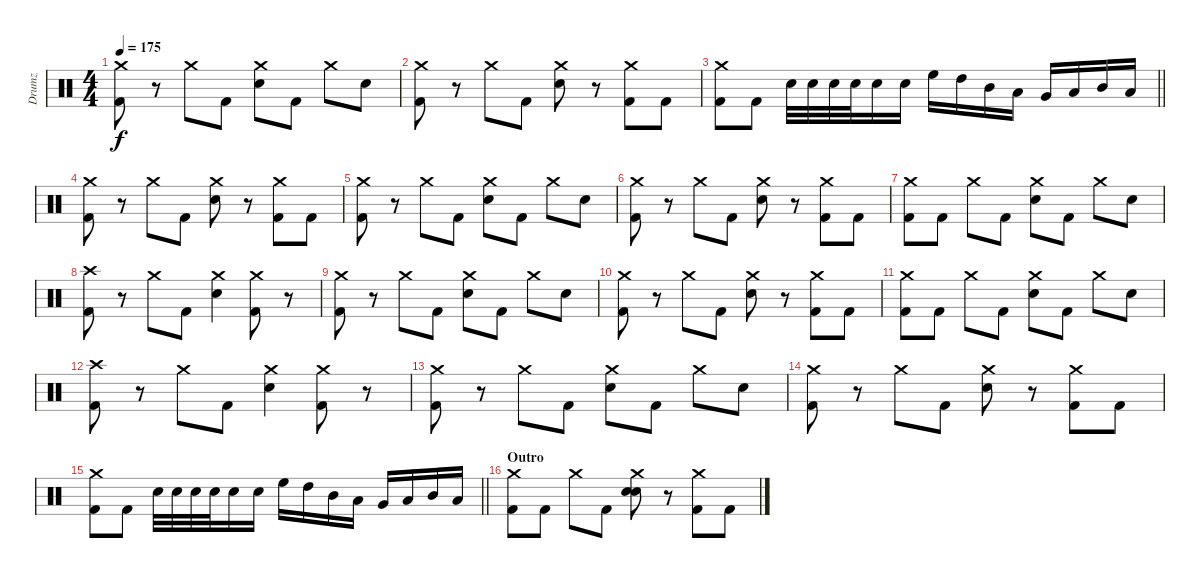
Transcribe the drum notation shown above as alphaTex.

\track ("Drumz" "Drumz") {instrument percussion}
\staff {score}
\articulation defaults
\ts (4 4)
\tempo 175
\clef neutral
\ks c
("Crash medium (hit)" "Kick (hit) 2").8{dy f} r.8 "Crash medium (hit)".8 "Kick (hit) 2".8 ("Crash medium (hit)" "Snare (hit) 2").8 "Kick (hit) 2".8 "Crash medium (hit)".8 "Snare (hit) 2".8 |
("Crash medium (hit)" "Kick (hit) 2").8 r.8 "Crash medium (hit)".8 "Kick (hit) 2".8 ("Crash medium (hit)" "Snare (hit) 2").8 r.8 ("Crash medium (hit)" "Kick (hit) 2").8 "Kick (hit) 2".8 |
\barLineRight lightlight
("Crash medium (hit)" "Kick (hit) 2").8 "Kick (hit) 2".8 "Electric Snare (hit)".32 "Electric Snare (hit)".32 "Electric Snare (hit)".32 "Electric Snare (hit)".32 "Electric Snare (hit)".16 "Electric Snare (hit)".16 "High Floor Tom (hit)".16 "High Tom (hit)".16 "Mid Tom (hit)".16 "Low Tom (hit)".16 "Very Low Tom (hit)".16 "Low Floor Tom (hit)".16 "Mid Tom (hit)".16 "Low Tom (hit)".16 |
("Crash medium (hit)" "Kick (hit) 2").8 r.8 "Crash medium (hit)".8 "Kick (hit) 2".8 ("Crash medium (hit)" "Snare (hit) 2").8 r.8 ("Crash medium (hit)" "Kick (hit) 2").8 "Kick (hit) 2".8 |
("Crash medium (hit)" "Kick (hit) 2").8 r.8 "Crash medium (hit)".8 "Kick (hit) 2".8 ("Crash medium (hit)" "Snare (hit) 2").8 "Kick (hit) 2".8 "Crash medium (hit)".8 "Snare (hit) 2".8 |
("Crash medium (hit)" "Kick (hit) 2").8 r.8 "Crash medium (hit)".8 "Kick (hit) 2".8 ("Crash medium (hit)" "Snare (hit) 2").8 r.8 ("Crash medium (hit)" "Kick (hit) 2").8 "Kick (hit) 2".8 |
("Crash medium (hit)" "Kick (hit) 2").8 "Kick (hit) 2".8 "Crash medium (hit)".8 "Kick (hit) 2".8 ("Crash medium (hit)" "Snare (hit) 2").8 "Kick (hit) 2".8 "Crash medium (hit)".8 "Snare (hit) 2".8 |
("Kick (hit) 2" "Crash high (hit)").8 r.8 "Crash medium (hit)".8 "Kick (hit) 2".8 ("Crash medium (hit)" "Snare (hit) 2").4 ("Crash medium (hit)" "Kick (hit) 2").8 r.8 |
("Crash medium (hit)" "Kick (hit) 2").8 r.8 "Crash medium (hit)".8 "Kick (hit) 2".8 ("Crash medium (hit)" "Snare (hit) 2").8 "Kick (hit) 2".8 "Crash medium (hit)".8 "Snare (hit) 2".8 |
("Crash medium (hit)" "Kick (hit) 2").8 r.8 "Crash medium (hit)".8 "Kick (hit) 2".8 ("Crash medium (hit)" "Snare (hit) 2").8 r.8 ("Crash medium (hit)" "Kick (hit) 2").8 "Kick (hit) 2".8 |
("Crash medium (hit)" "Kick (hit) 2").8 "Kick (hit) 2".8 "Crash medium (hit)".8 "Kick (hit) 2".8 ("Crash medium (hit)" "Snare (hit) 2").8 "Kick (hit) 2".8 "Crash medium (hit)".8 "Snare (hit) 2".8 |
("Kick (hit) 2" "Crash high (hit)").8 r.8 "Crash medium (hit)".8 "Kick (hit) 2".8 ("Crash medium (hit)" "Snare (hit) 2").4 ("Crash medium (hit)" "Kick (hit) 2").8 r.8 |
("Crash medium (hit)" "Kick (hit) 2").8 r.8 "Crash medium (hit)".8 "Kick (hit) 2".8 ("Crash medium (hit)" "Snare (hit) 2").8 "Kick (hit) 2".8 "Crash medium (hit)".8 "Snare (hit) 2".8 |
("Crash medium (hit)" "Kick (hit) 2").8 r.8 "Crash medium (hit)".8 "Kick (hit) 2".8 ("Crash medium (hit)" "Snare (hit) 2").8 r.8 ("Crash medium (hit)" "Kick (hit) 2").8 "Kick (hit) 2".8 |
\barLineRight lightlight
("Crash medium (hit)" "Kick (hit) 2").8 "Kick (hit) 2".8 "Electric Snare (hit)".32 "Electric Snare (hit)".32 "Electric Snare (hit)".32 "Electric Snare (hit)".32 "Electric Snare (hit)".16 "Electric Snare (hit)".16 "High Floor Tom (hit)".16 "High Tom (hit)".16 "Mid Tom (hit)".16 "Low Tom (hit)".16 "Very Low Tom (hit)".16 "Low Floor Tom (hit)".16 "Mid Tom (hit)".16 "Low Tom (hit)".16 |
\section ("" "Outro")
("Crash medium (hit)" "Kick (hit) 2").8 "Kick (hit) 2".8 "Crash medium (hit)".8 "Kick (hit) 2".8 ("Crash medium (hit)" "Electric Snare (hit)" "Electric Snare (hit)").8 r.8 ("Crash medium (hit)" "Kick (hit) 2").8 "Kick (hit) 2".8
